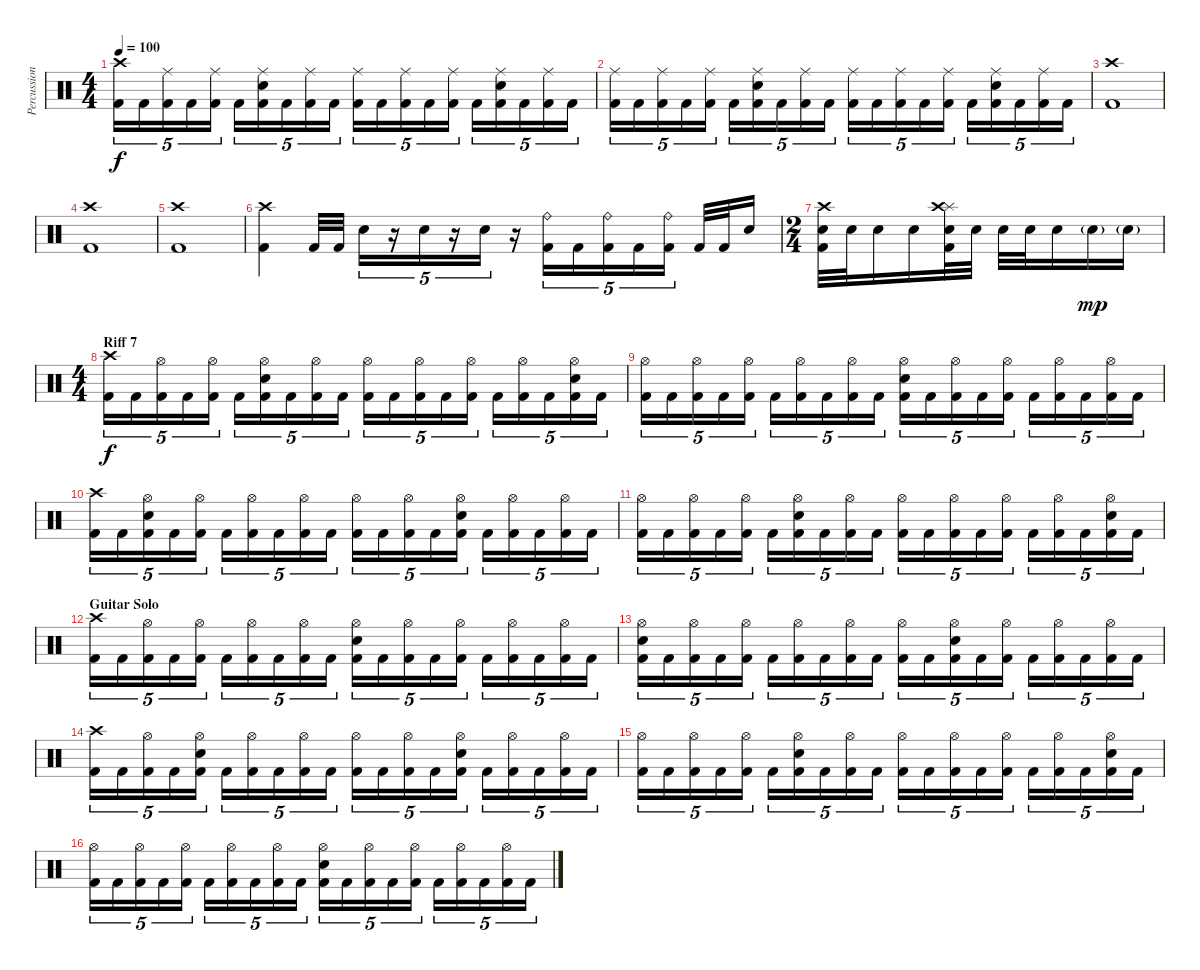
\track ("Percussion" "Percussion") {instrument percussion}
\staff {score}
\articulation defaults
\ts (4 4)
\tempo 100
\clef neutral
\ks c
("Crash high (hit)" "Kick (hit) 2").16{tu (5 4) dy f} "Kick (hit) 2".16{tu (5 4)} ("Ride (middle)" "Kick (hit) 2").16{tu (5 4)} "Kick (hit) 2".16{tu (5 4)} ("Ride (middle)" "Kick (hit) 2").16{tu (5 4)} "Kick (hit) 2".16{tu (5 4)} ("Ride (middle)" "Electric Snare (hit)" "Kick (hit) 2").16{tu (5 4)} "Kick (hit) 2".16{tu (5 4)} ("Ride (middle)" "Kick (hit) 2").16{tu (5 4)} "Kick (hit) 2".16{tu (5 4)} ("Ride (middle)" "Kick (hit) 2").16{tu (5 4)} "Kick (hit) 2".16{tu (5 4)} ("Ride (middle)" "Kick (hit) 2").16{tu (5 4)} "Kick (hit) 2".16{tu (5 4)} ("Ride (middle)" "Kick (hit) 2").16{tu (5 4)} "Kick (hit) 2".16{tu (5 4)} ("Ride (middle)" "Electric Snare (hit)" "Kick (hit) 2").16{tu (5 4)} "Kick (hit) 2".16{tu (5 4)} ("Ride (middle)" "Kick (hit) 2").16{tu (5 4)} "Kick (hit) 2".16{tu (5 4)} |
("Ride (middle)" "Kick (hit) 2").16{tu (5 4)} "Kick (hit) 2".16{tu (5 4)} ("Ride (middle)" "Kick (hit) 2").16{tu (5 4)} "Kick (hit) 2".16{tu (5 4)} ("Ride (middle)" "Kick (hit) 2").16{tu (5 4)} "Kick (hit) 2".16{tu (5 4)} ("Ride (middle)" "Electric Snare (hit)" "Kick (hit) 2").16{tu (5 4)} "Kick (hit) 2".16{tu (5 4)} ("Ride (middle)" "Kick (hit) 2").16{tu (5 4)} "Kick (hit) 2".16{tu (5 4)} ("Ride (middle)" "Kick (hit) 2").16{tu (5 4)} "Kick (hit) 2".16{tu (5 4)} ("Ride (middle)" "Kick (hit) 2").16{tu (5 4)} "Kick (hit) 2".16{tu (5 4)} ("Ride (middle)" "Kick (hit) 2").16{tu (5 4)} "Kick (hit) 2".16{tu (5 4)} ("Ride (middle)" "Electric Snare (hit)" "Kick (hit) 2").16{tu (5 4)} "Kick (hit) 2".16{tu (5 4)} ("Ride (middle)" "Kick (hit) 2").16{tu (5 4)} "Kick (hit) 2".16{tu (5 4)} |
("Crash high (hit)" "Kick (hit) 2").1 |
("Crash high (hit)" "Kick (hit) 2").1 |
("Crash high (hit)" "Kick (hit) 2").1 |
("Crash high (hit)" "Kick (hit) 2").4 "Kick (hit) 2".32 "Kick (hit) 2".32 "Electric Snare (hit)".16{tu (5 4)} r.16{tu (5 4)} "Electric Snare (hit)".16{tu (5 4)} r.16{tu (5 4)} "Electric Snare (hit)".16{tu (5 4)} r.16 ("Ride (bell)" "Kick (hit) 2").16{tu (5 4)} "Kick (hit) 2".16{tu (5 4)} ("Ride (bell)" "Kick (hit) 2").16{tu (5 4)} "Kick (hit) 2".16{tu (5 4)} ("Ride (bell)" "Kick (hit) 2").16{tu (5 4)} "Kick (hit) 2".32 "Kick (hit) 2".32 "Electric Snare (hit)".16 |
\ts (2 4)
("Crash high (hit)" "Electric Snare (hit)" "Kick (hit) 2").32 "Electric Snare (hit)".32 "Electric Snare (hit)".16 "Electric Snare (hit)".16 ("Splash (hit)" "Crash high (hit)" "Electric Snare (hit)" "Kick (hit) 2").32 "Electric Snare (hit)".32 "Electric Snare (hit)".32 "Electric Snare (hit)".32 "Electric Snare (hit)".16 "Electric Snare (hit)"{g}.16{dy mp} "Electric Snare (hit)"{g}.16 |
\ts (4 4)
\section ("" "Riff 7")
("Crash high (hit)" "Kick (hit) 2").16{tu (5 4) dy f} "Kick (hit) 2".16{tu (5 4)} ("Hi-Hat (open)" "Kick (hit) 2").16{tu (5 4)} "Kick (hit) 2".16{tu (5 4)} ("Hi-Hat (open)" "Kick (hit) 2").16{tu (5 4)} "Kick (hit) 2".16{tu (5 4)} ("Hi-Hat (open)" "Electric Snare (hit)" "Kick (hit) 2").16{tu (5 4)} "Kick (hit) 2".16{tu (5 4)} ("Hi-Hat (open)" "Kick (hit) 2").16{tu (5 4)} "Kick (hit) 2".16{tu (5 4)} ("Hi-Hat (open)" "Kick (hit) 2").16{tu (5 4)} "Kick (hit) 2".16{tu (5 4)} ("Hi-Hat (open)" "Kick (hit) 2").16{tu (5 4)} "Kick (hit) 2".16{tu (5 4)} ("Hi-Hat (open)" "Kick (hit) 2").16{tu (5 4)} "Kick (hit) 2".16{tu (5 4)} ("Hi-Hat (open)" "Kick (hit) 2").16{tu (5 4)} "Kick (hit) 2".16{tu (5 4)} ("Hi-Hat (open)" "Electric Snare (hit)" "Kick (hit) 2").16{tu (5 4)} "Kick (hit) 2".16{tu (5 4)} |
("Hi-Hat (open)" "Kick (hit) 2").16{tu (5 4)} "Kick (hit) 2".16{tu (5 4)} ("Hi-Hat (open)" "Kick (hit) 2").16{tu (5 4)} "Kick (hit) 2".16{tu (5 4)} ("Hi-Hat (open)" "Kick (hit) 2").16{tu (5 4)} "Kick (hit) 2".16{tu (5 4)} ("Hi-Hat (open)" "Kick (hit) 2").16{tu (5 4)} "Kick (hit) 2".16{tu (5 4)} ("Hi-Hat (open)" "Kick (hit) 2").16{tu (5 4)} "Kick (hit) 2".16{tu (5 4)} ("Hi-Hat (open)" "Electric Snare (hit)" "Kick (hit) 2").16{tu (5 4)} "Kick (hit) 2".16{tu (5 4)} ("Hi-Hat (open)" "Kick (hit) 2").16{tu (5 4)} "Kick (hit) 2".16{tu (5 4)} ("Hi-Hat (open)" "Kick (hit) 2").16{tu (5 4)} "Kick (hit) 2".16{tu (5 4)} ("Hi-Hat (open)" "Kick (hit) 2").16{tu (5 4)} "Kick (hit) 2".16{tu (5 4)} ("Hi-Hat (open)" "Kick (hit) 2").16{tu (5 4)} "Kick (hit) 2".16{tu (5 4)} |
("Crash high (hit)" "Kick (hit) 2").16{tu (5 4)} "Kick (hit) 2".16{tu (5 4)} ("Hi-Hat (open)" "Electric Snare (hit)" "Kick (hit) 2").16{tu (5 4)} "Kick (hit) 2".16{tu (5 4)} ("Hi-Hat (open)" "Kick (hit) 2").16{tu (5 4)} "Kick (hit) 2".16{tu (5 4)} ("Hi-Hat (open)" "Kick (hit) 2").16{tu (5 4)} "Kick (hit) 2".16{tu (5 4)} ("Hi-Hat (open)" "Kick (hit) 2").16{tu (5 4)} "Kick (hit) 2".16{tu (5 4)} ("Hi-Hat (open)" "Kick (hit) 2").16{tu (5 4)} "Kick (hit) 2".16{tu (5 4)} ("Hi-Hat (open)" "Kick (hit) 2").16{tu (5 4)} "Kick (hit) 2".16{tu (5 4)} ("Hi-Hat (open)" "Electric Snare (hit)" "Kick (hit) 2").16{tu (5 4)} "Kick (hit) 2".16{tu (5 4)} ("Hi-Hat (open)" "Kick (hit) 2").16{tu (5 4)} "Kick (hit) 2".16{tu (5 4)} ("Hi-Hat (open)" "Kick (hit) 2").16{tu (5 4)} "Kick (hit) 2".16{tu (5 4)} |
("Hi-Hat (open)" "Kick (hit) 2").16{tu (5 4)} "Kick (hit) 2".16{tu (5 4)} ("Hi-Hat (open)" "Kick (hit) 2").16{tu (5 4)} "Kick (hit) 2".16{tu (5 4)} ("Hi-Hat (open)" "Kick (hit) 2").16{tu (5 4)} "Kick (hit) 2".16{tu (5 4)} ("Hi-Hat (open)" "Electric Snare (hit)" "Kick (hit) 2").16{tu (5 4)} "Kick (hit) 2".16{tu (5 4)} ("Hi-Hat (open)" "Kick (hit) 2").16{tu (5 4)} "Kick (hit) 2".16{tu (5 4)} ("Hi-Hat (open)" "Kick (hit) 2").16{tu (5 4)} "Kick (hit) 2".16{tu (5 4)} ("Hi-Hat (open)" "Kick (hit) 2").16{tu (5 4)} "Kick (hit) 2".16{tu (5 4)} ("Hi-Hat (open)" "Kick (hit) 2").16{tu (5 4)} "Kick (hit) 2".16{tu (5 4)} ("Hi-Hat (open)" "Kick (hit) 2").16{tu (5 4)} "Kick (hit) 2".16{tu (5 4)} ("Hi-Hat (open)" "Electric Snare (hit)" "Kick (hit) 2").16{tu (5 4)} "Kick (hit) 2".16{tu (5 4)} |
\section ("" "Guitar Solo")
("Crash high (hit)" "Kick (hit) 2").16{tu (5 4)} "Kick (hit) 2".16{tu (5 4)} ("Hi-Hat (open)" "Kick (hit) 2").16{tu (5 4)} "Kick (hit) 2".16{tu (5 4)} ("Hi-Hat (open)" "Kick (hit) 2").16{tu (5 4)} "Kick (hit) 2".16{tu (5 4)} ("Hi-Hat (open)" "Kick (hit) 2").16{tu (5 4)} "Kick (hit) 2".16{tu (5 4)} ("Hi-Hat (open)" "Kick (hit) 2").16{tu (5 4)} "Kick (hit) 2".16{tu (5 4)} ("Hi-Hat (open)" "Electric Snare (hit)" "Kick (hit) 2").16{tu (5 4)} "Kick (hit) 2".16{tu (5 4)} ("Hi-Hat (open)" "Kick (hit) 2").16{tu (5 4)} "Kick (hit) 2".16{tu (5 4)} ("Hi-Hat (open)" "Kick (hit) 2").16{tu (5 4)} "Kick (hit) 2".16{tu (5 4)} ("Hi-Hat (open)" "Kick (hit) 2").16{tu (5 4)} "Kick (hit) 2".16{tu (5 4)} ("Hi-Hat (open)" "Kick (hit) 2").16{tu (5 4)} "Kick (hit) 2".16{tu (5 4)} |
("Hi-Hat (open)" "Electric Snare (hit)" "Kick (hit) 2").16{tu (5 4)} "Kick (hit) 2".16{tu (5 4)} ("Hi-Hat (open)" "Kick (hit) 2").16{tu (5 4)} "Kick (hit) 2".16{tu (5 4)} ("Hi-Hat (open)" "Kick (hit) 2").16{tu (5 4)} "Kick (hit) 2".16{tu (5 4)} ("Hi-Hat (open)" "Kick (hit) 2").16{tu (5 4)} "Kick (hit) 2".16{tu (5 4)} ("Hi-Hat (open)" "Kick (hit) 2").16{tu (5 4)} "Kick (hit) 2".16{tu (5 4)} ("Hi-Hat (open)" "Kick (hit) 2").16{tu (5 4)} "Kick (hit) 2".16{tu (5 4)} ("Hi-Hat (open)" "Electric Snare (hit)" "Kick (hit) 2").16{tu (5 4)} "Kick (hit) 2".16{tu (5 4)} ("Hi-Hat (open)" "Kick (hit) 2").16{tu (5 4)} "Kick (hit) 2".16{tu (5 4)} ("Hi-Hat (open)" "Kick (hit) 2").16{tu (5 4)} "Kick (hit) 2".16{tu (5 4)} ("Hi-Hat (open)" "Kick (hit) 2").16{tu (5 4)} "Kick (hit) 2".16{tu (5 4)} |
("Crash high (hit)" "Kick (hit) 2").16{tu (5 4)} "Kick (hit) 2".16{tu (5 4)} ("Hi-Hat (open)" "Kick (hit) 2").16{tu (5 4)} "Kick (hit) 2".16{tu (5 4)} ("Hi-Hat (open)" "Electric Snare (hit)" "Kick (hit) 2").16{tu (5 4)} "Kick (hit) 2".16{tu (5 4)} ("Hi-Hat (open)" "Kick (hit) 2").16{tu (5 4)} "Kick (hit) 2".16{tu (5 4)} ("Hi-Hat (open)" "Kick (hit) 2").16{tu (5 4)} "Kick (hit) 2".16{tu (5 4)} ("Hi-Hat (open)" "Kick (hit) 2").16{tu (5 4)} "Kick (hit) 2".16{tu (5 4)} ("Hi-Hat (open)" "Kick (hit) 2").16{tu (5 4)} "Kick (hit) 2".16{tu (5 4)} ("Hi-Hat (open)" "Electric Snare (hit)" "Kick (hit) 2").16{tu (5 4)} "Kick (hit) 2".16{tu (5 4)} ("Hi-Hat (open)" "Kick (hit) 2").16{tu (5 4)} "Kick (hit) 2".16{tu (5 4)} ("Hi-Hat (open)" "Kick (hit) 2").16{tu (5 4)} "Kick (hit) 2".16{tu (5 4)} |
("Hi-Hat (open)" "Kick (hit) 2").16{tu (5 4)} "Kick (hit) 2".16{tu (5 4)} ("Hi-Hat (open)" "Kick (hit) 2").16{tu (5 4)} "Kick (hit) 2".16{tu (5 4)} ("Hi-Hat (open)" "Kick (hit) 2").16{tu (5 4)} "Kick (hit) 2".16{tu (5 4)} ("Hi-Hat (open)" "Electric Snare (hit)" "Kick (hit) 2").16{tu (5 4)} "Kick (hit) 2".16{tu (5 4)} ("Hi-Hat (open)" "Kick (hit) 2").16{tu (5 4)} "Kick (hit) 2".16{tu (5 4)} ("Hi-Hat (open)" "Kick (hit) 2").16{tu (5 4)} "Kick (hit) 2".16{tu (5 4)} ("Hi-Hat (open)" "Kick (hit) 2").16{tu (5 4)} "Kick (hit) 2".16{tu (5 4)} ("Hi-Hat (open)" "Kick (hit) 2").16{tu (5 4)} "Kick (hit) 2".16{tu (5 4)} ("Hi-Hat (open)" "Kick (hit) 2").16{tu (5 4)} "Kick (hit) 2".16{tu (5 4)} ("Hi-Hat (open)" "Electric Snare (hit)" "Kick (hit) 2").16{tu (5 4)} "Kick (hit) 2".16{tu (5 4)} |
("Hi-Hat (open)" "Kick (hit) 2").16{tu (5 4)} "Kick (hit) 2".16{tu (5 4)} ("Hi-Hat (open)" "Kick (hit) 2").16{tu (5 4)} "Kick (hit) 2".16{tu (5 4)} ("Hi-Hat (open)" "Kick (hit) 2").16{tu (5 4)} "Kick (hit) 2".16{tu (5 4)} ("Hi-Hat (open)" "Kick (hit) 2").16{tu (5 4)} "Kick (hit) 2".16{tu (5 4)} ("Hi-Hat (open)" "Kick (hit) 2").16{tu (5 4)} "Kick (hit) 2".16{tu (5 4)} ("Hi-Hat (open)" "Electric Snare (hit)" "Kick (hit) 2").16{tu (5 4)} "Kick (hit) 2".16{tu (5 4)} ("Hi-Hat (open)" "Kick (hit) 2").16{tu (5 4)} "Kick (hit) 2".16{tu (5 4)} ("Hi-Hat (open)" "Kick (hit) 2").16{tu (5 4)} "Kick (hit) 2".16{tu (5 4)} ("Hi-Hat (open)" "Kick (hit) 2").16{tu (5 4)} "Kick (hit) 2".16{tu (5 4)} ("Hi-Hat (open)" "Kick (hit) 2").16{tu (5 4)} "Kick (hit) 2".16{tu (5 4)}
